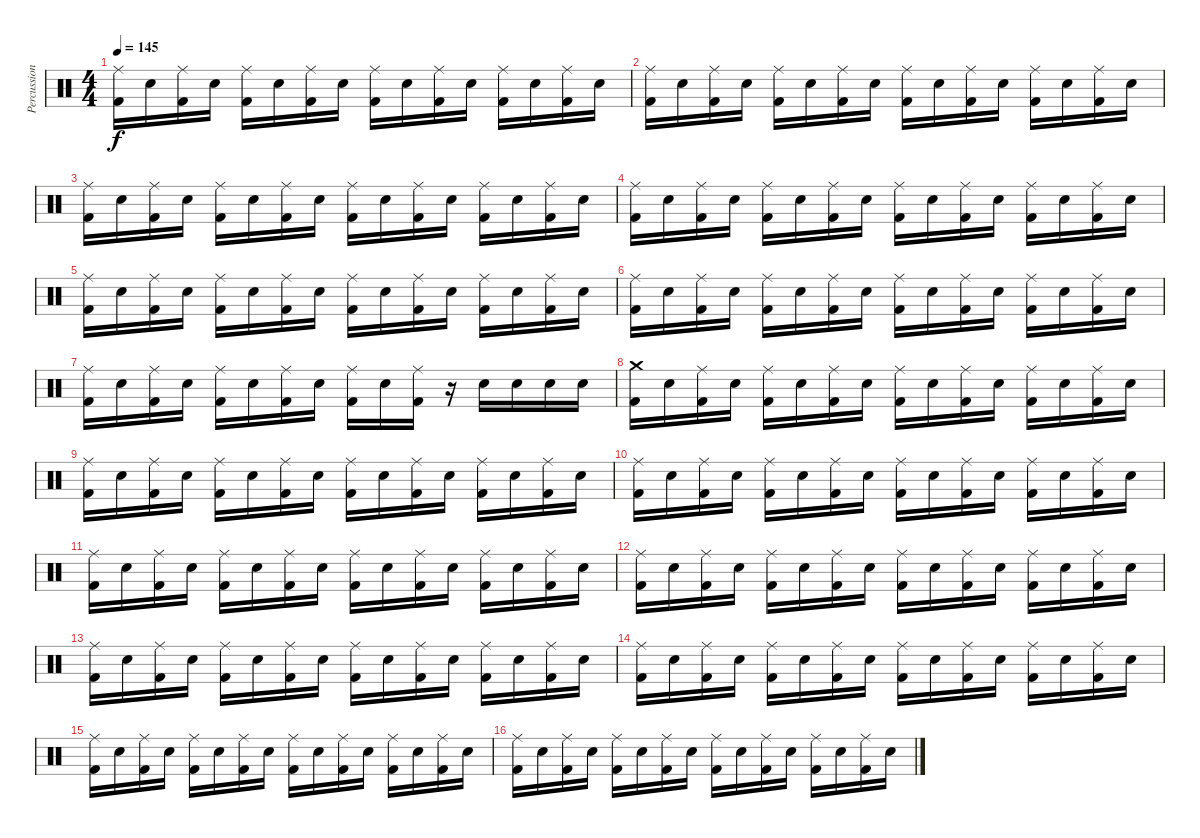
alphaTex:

\track ("Percussions" "Percussion") {instrument percussion}
\staff {score}
\articulation defaults
\ts (4 4)
\tempo 145
\clef neutral
\ks c
("Ride (middle)" "Kick (hit) 2").16{dy f} "Snare (hit) 2".16 ("Ride (middle)" "Kick (hit) 2").16 "Snare (hit) 2".16 ("Ride (middle)" "Kick (hit) 2").16 "Snare (hit) 2".16 ("Ride (middle)" "Kick (hit) 2").16 "Snare (hit) 2".16 ("Ride (middle)" "Kick (hit) 2").16 "Snare (hit) 2".16 ("Ride (middle)" "Kick (hit) 2").16 "Snare (hit) 2".16 ("Ride (middle)" "Kick (hit) 2").16 "Snare (hit) 2".16 ("Ride (middle)" "Kick (hit) 2").16 "Snare (hit) 2".16 |
("Ride (middle)" "Kick (hit) 2").16 "Snare (hit) 2".16 ("Ride (middle)" "Kick (hit) 2").16 "Snare (hit) 2".16 ("Ride (middle)" "Kick (hit) 2").16 "Snare (hit) 2".16 ("Ride (middle)" "Kick (hit) 2").16 "Snare (hit) 2".16 ("Ride (middle)" "Kick (hit) 2").16 "Snare (hit) 2".16 ("Ride (middle)" "Kick (hit) 2").16 "Snare (hit) 2".16 ("Ride (middle)" "Kick (hit) 2").16 "Snare (hit) 2".16 ("Ride (middle)" "Kick (hit) 2").16 "Snare (hit) 2".16 |
("Ride (middle)" "Kick (hit) 2").16 "Snare (hit) 2".16 ("Ride (middle)" "Kick (hit) 2").16 "Snare (hit) 2".16 ("Ride (middle)" "Kick (hit) 2").16 "Snare (hit) 2".16 ("Ride (middle)" "Kick (hit) 2").16 "Snare (hit) 2".16 ("Ride (middle)" "Kick (hit) 2").16 "Snare (hit) 2".16 ("Ride (middle)" "Kick (hit) 2").16 "Snare (hit) 2".16 ("Ride (middle)" "Kick (hit) 2").16 "Snare (hit) 2".16 ("Ride (middle)" "Kick (hit) 2").16 "Snare (hit) 2".16 |
("Ride (middle)" "Kick (hit) 2").16 "Snare (hit) 2".16 ("Ride (middle)" "Kick (hit) 2").16 "Snare (hit) 2".16 ("Ride (middle)" "Kick (hit) 2").16 "Snare (hit) 2".16 ("Ride (middle)" "Kick (hit) 2").16 "Snare (hit) 2".16 ("Ride (middle)" "Kick (hit) 2").16 "Snare (hit) 2".16 ("Ride (middle)" "Kick (hit) 2").16 "Snare (hit) 2".16 ("Ride (middle)" "Kick (hit) 2").16 "Snare (hit) 2".16 ("Ride (middle)" "Kick (hit) 2").16 "Snare (hit) 2".16 |
("Ride (middle)" "Kick (hit) 2").16 "Snare (hit) 2".16 ("Ride (middle)" "Kick (hit) 2").16 "Snare (hit) 2".16 ("Ride (middle)" "Kick (hit) 2").16 "Snare (hit) 2".16 ("Ride (middle)" "Kick (hit) 2").16 "Snare (hit) 2".16 ("Ride (middle)" "Kick (hit) 2").16 "Snare (hit) 2".16 ("Ride (middle)" "Kick (hit) 2").16 "Snare (hit) 2".16 ("Ride (middle)" "Kick (hit) 2").16 "Snare (hit) 2".16 ("Ride (middle)" "Kick (hit) 2").16 "Snare (hit) 2".16 |
("Ride (middle)" "Kick (hit) 2").16 "Snare (hit) 2".16 ("Ride (middle)" "Kick (hit) 2").16 "Snare (hit) 2".16 ("Ride (middle)" "Kick (hit) 2").16 "Snare (hit) 2".16 ("Ride (middle)" "Kick (hit) 2").16 "Snare (hit) 2".16 ("Ride (middle)" "Kick (hit) 2").16 "Snare (hit) 2".16 ("Ride (middle)" "Kick (hit) 2").16 "Snare (hit) 2".16 ("Ride (middle)" "Kick (hit) 2").16 "Snare (hit) 2".16 ("Ride (middle)" "Kick (hit) 2").16 "Snare (hit) 2".16 |
("Ride (middle)" "Kick (hit) 2").16 "Snare (hit) 2".16 ("Ride (middle)" "Kick (hit) 2").16 "Snare (hit) 2".16 ("Ride (middle)" "Kick (hit) 2").16 "Snare (hit) 2".16 ("Ride (middle)" "Kick (hit) 2").16 "Snare (hit) 2".16 ("Ride (middle)" "Kick (hit) 2").16 "Snare (hit) 2".16 ("Ride (middle)" "Kick (hit) 2").16 r.16 "Snare (hit) 2".16 "Snare (hit) 2".16 "Snare (hit) 2".16 "Snare (hit) 2".16 |
("Crash medium (hit)" "Kick (hit) 2").16 "Snare (hit) 2".16 ("Ride (middle)" "Kick (hit) 2").16 "Snare (hit) 2".16 ("Ride (middle)" "Kick (hit) 2").16 "Snare (hit) 2".16 ("Ride (middle)" "Kick (hit) 2").16 "Snare (hit) 2".16 ("Ride (middle)" "Kick (hit) 2").16 "Snare (hit) 2".16 ("Ride (middle)" "Kick (hit) 2").16 "Snare (hit) 2".16 ("Ride (middle)" "Kick (hit) 2").16 "Snare (hit) 2".16 ("Ride (middle)" "Kick (hit) 2").16 "Snare (hit) 2".16 |
("Ride (middle)" "Kick (hit) 2").16 "Snare (hit) 2".16 ("Ride (middle)" "Kick (hit) 2").16 "Snare (hit) 2".16 ("Ride (middle)" "Kick (hit) 2").16 "Snare (hit) 2".16 ("Ride (middle)" "Kick (hit) 2").16 "Snare (hit) 2".16 ("Ride (middle)" "Kick (hit) 2").16 "Snare (hit) 2".16 ("Ride (middle)" "Kick (hit) 2").16 "Snare (hit) 2".16 ("Ride (middle)" "Kick (hit) 2").16 "Snare (hit) 2".16 ("Ride (middle)" "Kick (hit) 2").16 "Snare (hit) 2".16 |
("Ride (middle)" "Kick (hit) 2").16 "Snare (hit) 2".16 ("Ride (middle)" "Kick (hit) 2").16 "Snare (hit) 2".16 ("Ride (middle)" "Kick (hit) 2").16 "Snare (hit) 2".16 ("Ride (middle)" "Kick (hit) 2").16 "Snare (hit) 2".16 ("Ride (middle)" "Kick (hit) 2").16 "Snare (hit) 2".16 ("Ride (middle)" "Kick (hit) 2").16 "Snare (hit) 2".16 ("Ride (middle)" "Kick (hit) 2").16 "Snare (hit) 2".16 ("Ride (middle)" "Kick (hit) 2").16 "Snare (hit) 2".16 |
("Ride (middle)" "Kick (hit) 2").16 "Snare (hit) 2".16 ("Ride (middle)" "Kick (hit) 2").16 "Snare (hit) 2".16 ("Ride (middle)" "Kick (hit) 2").16 "Snare (hit) 2".16 ("Ride (middle)" "Kick (hit) 2").16 "Snare (hit) 2".16 ("Ride (middle)" "Kick (hit) 2").16 "Snare (hit) 2".16 ("Ride (middle)" "Kick (hit) 2").16 "Snare (hit) 2".16 ("Ride (middle)" "Kick (hit) 2").16 "Snare (hit) 2".16 ("Ride (middle)" "Kick (hit) 2").16 "Snare (hit) 2".16 |
("Ride (middle)" "Kick (hit) 2").16 "Snare (hit) 2".16 ("Ride (middle)" "Kick (hit) 2").16 "Snare (hit) 2".16 ("Ride (middle)" "Kick (hit) 2").16 "Snare (hit) 2".16 ("Ride (middle)" "Kick (hit) 2").16 "Snare (hit) 2".16 ("Ride (middle)" "Kick (hit) 2").16 "Snare (hit) 2".16 ("Ride (middle)" "Kick (hit) 2").16 "Snare (hit) 2".16 ("Ride (middle)" "Kick (hit) 2").16 "Snare (hit) 2".16 ("Ride (middle)" "Kick (hit) 2").16 "Snare (hit) 2".16 |
("Ride (middle)" "Kick (hit) 2").16 "Snare (hit) 2".16 ("Ride (middle)" "Kick (hit) 2").16 "Snare (hit) 2".16 ("Ride (middle)" "Kick (hit) 2").16 "Snare (hit) 2".16 ("Ride (middle)" "Kick (hit) 2").16 "Snare (hit) 2".16 ("Ride (middle)" "Kick (hit) 2").16 "Snare (hit) 2".16 ("Ride (middle)" "Kick (hit) 2").16 "Snare (hit) 2".16 ("Ride (middle)" "Kick (hit) 2").16 "Snare (hit) 2".16 ("Ride (middle)" "Kick (hit) 2").16 "Snare (hit) 2".16 |
("Ride (middle)" "Kick (hit) 2").16 "Snare (hit) 2".16 ("Ride (middle)" "Kick (hit) 2").16 "Snare (hit) 2".16 ("Ride (middle)" "Kick (hit) 2").16 "Snare (hit) 2".16 ("Ride (middle)" "Kick (hit) 2").16 "Snare (hit) 2".16 ("Ride (middle)" "Kick (hit) 2").16 "Snare (hit) 2".16 ("Ride (middle)" "Kick (hit) 2").16 "Snare (hit) 2".16 ("Ride (middle)" "Kick (hit) 2").16 "Snare (hit) 2".16 ("Ride (middle)" "Kick (hit) 2").16 "Snare (hit) 2".16 |
("Ride (middle)" "Kick (hit) 2").16 "Snare (hit) 2".16 ("Ride (middle)" "Kick (hit) 2").16 "Snare (hit) 2".16 ("Ride (middle)" "Kick (hit) 2").16 "Snare (hit) 2".16 ("Ride (middle)" "Kick (hit) 2").16 "Snare (hit) 2".16 ("Ride (middle)" "Kick (hit) 2").16 "Snare (hit) 2".16 ("Ride (middle)" "Kick (hit) 2").16 "Snare (hit) 2".16 ("Ride (middle)" "Kick (hit) 2").16 "Snare (hit) 2".16 ("Ride (middle)" "Kick (hit) 2").16 "Snare (hit) 2".16 |
("Ride (middle)" "Kick (hit) 2").16 "Snare (hit) 2".16 ("Ride (middle)" "Kick (hit) 2").16 "Snare (hit) 2".16 ("Ride (middle)" "Kick (hit) 2").16 "Snare (hit) 2".16 ("Ride (middle)" "Kick (hit) 2").16 "Snare (hit) 2".16 ("Ride (middle)" "Kick (hit) 2").16 "Snare (hit) 2".16 ("Ride (middle)" "Kick (hit) 2").16 "Snare (hit) 2".16 ("Ride (middle)" "Kick (hit) 2").16 "Snare (hit) 2".16 ("Ride (middle)" "Kick (hit) 2").16 "Snare (hit) 2".16
